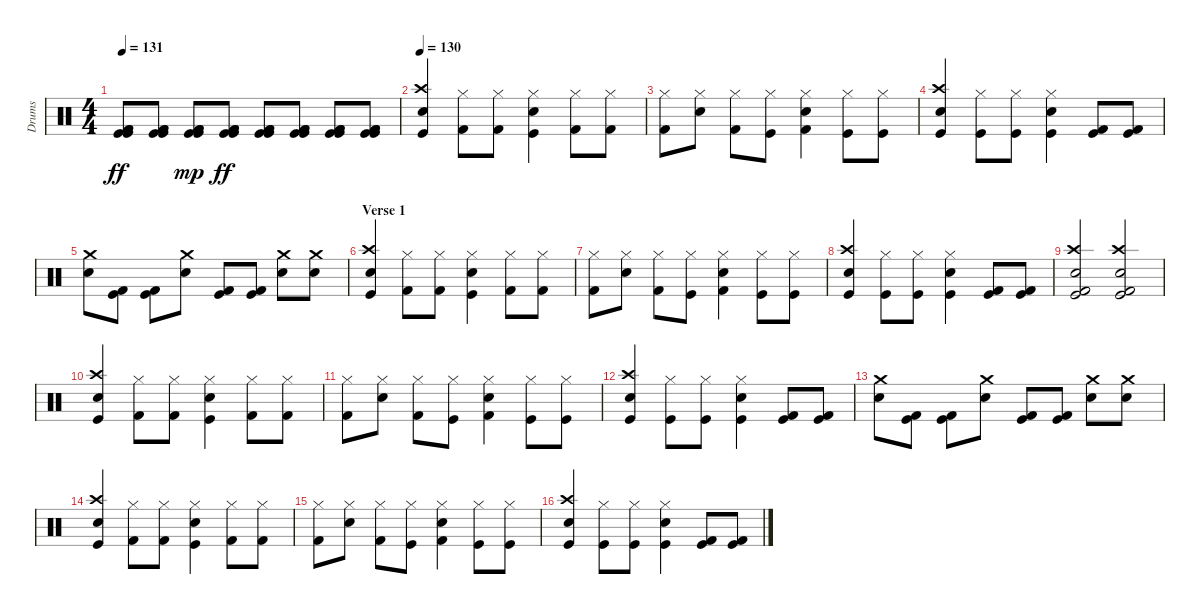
\track ("Drums" "Drums") {instrument percussion}
\staff {score}
\articulation defaults
\ts (4 4)
\tempo 131
\clef neutral
\ks c
("Kick (hit) 2" "Kick (hit) 2" "Kick (hit)" "Kick (hit)").8{dy ff} ("Kick (hit) 2" "Kick (hit) 2" "Kick (hit)" "Kick (hit)").8 ("Kick (hit) 2" "Kick (hit) 2" "Kick (hit)" "Kick (hit)").8{dy mp} ("Kick (hit) 2" "Kick (hit) 2" "Kick (hit)" "Kick (hit)").8{dy ff} ("Kick (hit) 2" "Kick (hit) 2" "Kick (hit)" "Kick (hit)").8 ("Kick (hit) 2" "Kick (hit) 2" "Kick (hit)" "Kick (hit)").8 ("Kick (hit) 2" "Kick (hit) 2" "Kick (hit)" "Kick (hit)").8 ("Kick (hit) 2" "Kick (hit) 2" "Kick (hit)" "Kick (hit)").8 |
\tempo 130
("Crash high (hit)" "Snare (hit) 2" "Kick (hit)").4 ("Hi-Hat (closed)" "Kick (hit) 2").8 ("Hi-Hat (closed)" "Kick (hit) 2").8 ("Hi-Hat (closed)" "Snare (hit) 2" "Kick (hit)").4 ("Hi-Hat (closed)" "Kick (hit) 2").8 ("Hi-Hat (closed)" "Kick (hit) 2").8 |
("Hi-Hat (closed)" "Kick (hit) 2").8 ("Hi-Hat (closed)" "Snare (hit) 2").8 ("Hi-Hat (closed)" "Kick (hit) 2").8 ("Hi-Hat (closed)" "Kick (hit)").8 ("Hi-Hat (closed)" "Kick (hit) 2" "Snare (hit) 2").4 ("Hi-Hat (closed)" "Kick (hit)").8 ("Hi-Hat (closed)" "Kick (hit)").8 |
("Crash high (hit)" "Snare (hit) 2" "Kick (hit)").4 ("Hi-Hat (closed)" "Kick (hit)").8 ("Hi-Hat (closed)" "Kick (hit)").8 ("Hi-Hat (closed)" "Snare (hit) 2" "Kick (hit)").4 ("Kick (hit) 2" "Kick (hit)").8 ("Kick (hit) 2" "Kick (hit)").8 |
("Crash medium (hit)" "Snare (hit) 2").8 ("Kick (hit) 2" "Kick (hit)").8 ("Kick (hit) 2" "Kick (hit)").8 ("Crash medium (hit)" "Snare (hit) 2").8 ("Kick (hit) 2" "Kick (hit)").8 ("Kick (hit) 2" "Kick (hit)").8 ("Crash medium (hit)" "Snare (hit) 2").8 ("Crash medium (hit)" "Snare (hit) 2").8 |
\section ("" "Verse 1")
("Crash high (hit)" "Snare (hit) 2" "Kick (hit)").4 ("Hi-Hat (closed)" "Kick (hit) 2").8 ("Hi-Hat (closed)" "Kick (hit) 2").8 ("Hi-Hat (closed)" "Snare (hit) 2" "Kick (hit)").4 ("Hi-Hat (closed)" "Kick (hit) 2").8 ("Hi-Hat (closed)" "Kick (hit) 2").8 |
("Hi-Hat (closed)" "Kick (hit) 2").8 ("Hi-Hat (closed)" "Snare (hit) 2").8 ("Hi-Hat (closed)" "Kick (hit) 2").8 ("Hi-Hat (closed)" "Kick (hit)").8 ("Hi-Hat (closed)" "Kick (hit) 2" "Snare (hit) 2").4 ("Hi-Hat (closed)" "Kick (hit)").8 ("Hi-Hat (closed)" "Kick (hit)").8 |
("Crash high (hit)" "Snare (hit) 2" "Kick (hit)").4 ("Hi-Hat (closed)" "Kick (hit)").8 ("Hi-Hat (closed)" "Kick (hit)").8 ("Hi-Hat (closed)" "Snare (hit) 2" "Kick (hit)").4 ("Kick (hit) 2" "Kick (hit)").8 ("Kick (hit) 2" "Kick (hit)").8 |
("Crash high (hit)" "Snare (hit) 2" "Kick (hit) 2" "Kick (hit)").2 ("Crash high (hit)" "Snare (hit) 2" "Kick (hit) 2" "Kick (hit)").2 |
("Crash high (hit)" "Snare (hit) 2" "Kick (hit)").4 ("Hi-Hat (closed)" "Kick (hit) 2").8 ("Hi-Hat (closed)" "Kick (hit) 2").8 ("Hi-Hat (closed)" "Snare (hit) 2" "Kick (hit)").4 ("Hi-Hat (closed)" "Kick (hit) 2").8 ("Hi-Hat (closed)" "Kick (hit) 2").8 |
("Hi-Hat (closed)" "Kick (hit) 2").8 ("Hi-Hat (closed)" "Snare (hit) 2").8 ("Hi-Hat (closed)" "Kick (hit) 2").8 ("Hi-Hat (closed)" "Kick (hit)").8 ("Hi-Hat (closed)" "Kick (hit) 2" "Snare (hit) 2").4 ("Hi-Hat (closed)" "Kick (hit)").8 ("Hi-Hat (closed)" "Kick (hit)").8 |
("Crash high (hit)" "Snare (hit) 2" "Kick (hit)").4 ("Hi-Hat (closed)" "Kick (hit)").8 ("Hi-Hat (closed)" "Kick (hit)").8 ("Hi-Hat (closed)" "Snare (hit) 2" "Kick (hit)").4 ("Kick (hit) 2" "Kick (hit)").8 ("Kick (hit) 2" "Kick (hit)").8 |
("Crash medium (hit)" "Snare (hit) 2").8 ("Kick (hit) 2" "Kick (hit)").8 ("Kick (hit) 2" "Kick (hit)").8 ("Crash medium (hit)" "Snare (hit) 2").8 ("Kick (hit) 2" "Kick (hit)").8 ("Kick (hit) 2" "Kick (hit)").8 ("Crash medium (hit)" "Snare (hit) 2").8 ("Crash medium (hit)" "Snare (hit) 2").8 |
("Crash high (hit)" "Snare (hit) 2" "Kick (hit)").4 ("Hi-Hat (closed)" "Kick (hit) 2").8 ("Hi-Hat (closed)" "Kick (hit) 2").8 ("Hi-Hat (closed)" "Snare (hit) 2" "Kick (hit)").4 ("Hi-Hat (closed)" "Kick (hit) 2").8 ("Hi-Hat (closed)" "Kick (hit) 2").8 |
("Hi-Hat (closed)" "Kick (hit) 2").8 ("Hi-Hat (closed)" "Snare (hit) 2").8 ("Hi-Hat (closed)" "Kick (hit) 2").8 ("Hi-Hat (closed)" "Kick (hit)").8 ("Hi-Hat (closed)" "Kick (hit) 2" "Snare (hit) 2").4 ("Hi-Hat (closed)" "Kick (hit)").8 ("Hi-Hat (closed)" "Kick (hit)").8 |
("Crash high (hit)" "Snare (hit) 2" "Kick (hit)").4 ("Hi-Hat (closed)" "Kick (hit)").8 ("Hi-Hat (closed)" "Kick (hit)").8 ("Hi-Hat (closed)" "Snare (hit) 2" "Kick (hit)").4 ("Kick (hit) 2" "Kick (hit)").8 ("Kick (hit) 2" "Kick (hit)").8
